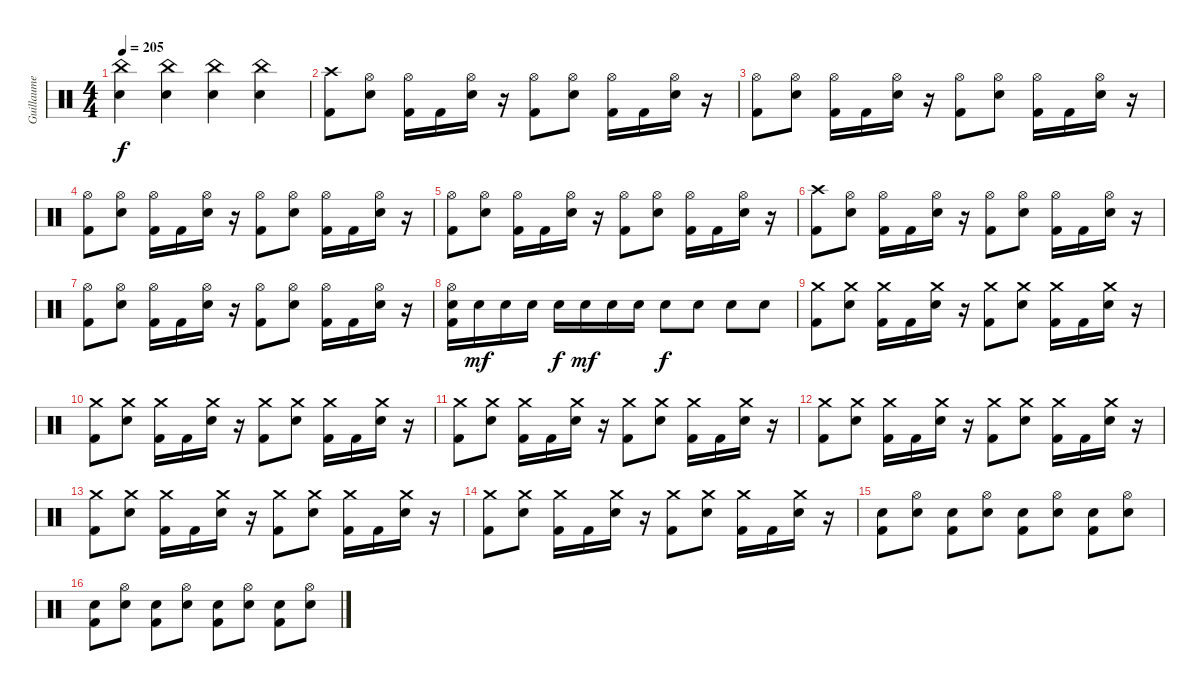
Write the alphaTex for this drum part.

\track ("Guillaume" "Guillaume") {instrument percussion}
\staff {score}
\articulation defaults
\ts (4 4)
\tempo 205
\clef neutral
\ks c
("China (hit)" "Snare (hit) 2").4{dy f} ("China (hit)" "Snare (hit) 2").4 ("China (hit)" "Snare (hit) 2").4 ("China (hit)" "Snare (hit) 2").4 |
("Crash high (hit)" "Kick (hit) 2").8 ("Snare (hit) 2" "Hi-Hat (open)").8 ("Hi-Hat (open)" "Kick (hit) 2").16 "Kick (hit) 2".16 ("Hi-Hat (open)" "Snare (hit) 2").16 r.16 ("Hi-Hat (open)" "Kick (hit) 2").8 ("Hi-Hat (open)" "Snare (hit) 2").8 ("Hi-Hat (open)" "Kick (hit) 2").16 "Kick (hit) 2".16 ("Hi-Hat (open)" "Snare (hit) 2").16 r.16 |
("Hi-Hat (open)" "Kick (hit) 2").8 ("Snare (hit) 2" "Hi-Hat (open)").8 ("Hi-Hat (open)" "Kick (hit) 2").16 "Kick (hit) 2".16 ("Hi-Hat (open)" "Snare (hit) 2").16 r.16 ("Hi-Hat (open)" "Kick (hit) 2").8 ("Hi-Hat (open)" "Snare (hit) 2").8 ("Hi-Hat (open)" "Kick (hit) 2").16 "Kick (hit) 2".16 ("Hi-Hat (open)" "Snare (hit) 2").16 r.16 |
("Hi-Hat (open)" "Kick (hit) 2").8 ("Snare (hit) 2" "Hi-Hat (open)").8 ("Hi-Hat (open)" "Kick (hit) 2").16 "Kick (hit) 2".16 ("Hi-Hat (open)" "Snare (hit) 2").16 r.16 ("Hi-Hat (open)" "Kick (hit) 2").8 ("Hi-Hat (open)" "Snare (hit) 2").8 ("Hi-Hat (open)" "Kick (hit) 2").16 "Kick (hit) 2".16 ("Hi-Hat (open)" "Snare (hit) 2").16 r.16 |
("Hi-Hat (open)" "Kick (hit) 2").8 ("Snare (hit) 2" "Hi-Hat (open)").8 ("Hi-Hat (open)" "Kick (hit) 2").16 "Kick (hit) 2".16 ("Hi-Hat (open)" "Snare (hit) 2").16 r.16 ("Hi-Hat (open)" "Kick (hit) 2").8 ("Hi-Hat (open)" "Snare (hit) 2").8 ("Hi-Hat (open)" "Kick (hit) 2").16 "Kick (hit) 2".16 ("Hi-Hat (open)" "Snare (hit) 2").16 r.16 |
("Crash high (hit)" "Kick (hit) 2").8 ("Snare (hit) 2" "Hi-Hat (open)").8 ("Hi-Hat (open)" "Kick (hit) 2").16 "Kick (hit) 2".16 ("Hi-Hat (open)" "Snare (hit) 2").16 r.16 ("Hi-Hat (open)" "Kick (hit) 2").8 ("Hi-Hat (open)" "Snare (hit) 2").8 ("Hi-Hat (open)" "Kick (hit) 2").16 "Kick (hit) 2".16 ("Hi-Hat (open)" "Snare (hit) 2").16 r.16 |
("Hi-Hat (open)" "Kick (hit) 2").8 ("Snare (hit) 2" "Hi-Hat (open)").8 ("Hi-Hat (open)" "Kick (hit) 2").16 "Kick (hit) 2".16 ("Hi-Hat (open)" "Snare (hit) 2").16 r.16 ("Hi-Hat (open)" "Kick (hit) 2").8 ("Hi-Hat (open)" "Snare (hit) 2").8 ("Hi-Hat (open)" "Kick (hit) 2").16 "Kick (hit) 2".16 ("Hi-Hat (open)" "Snare (hit) 2").16 r.16 |
("Hi-Hat (open)" "Kick (hit) 2" "Snare (hit) 2").16 "Snare (hit) 2".16{dy mf} "Snare (hit) 2".16 "Snare (hit) 2".16 "Snare (hit) 2".16{dy f} "Snare (hit) 2".16{dy mf} "Snare (hit) 2".16 "Snare (hit) 2".16 "Snare (hit) 2".8{dy f} "Snare (hit) 2".8 "Snare (hit) 2".8 "Snare (hit) 2".8 |
("Crash medium (hit)" "Kick (hit) 2").8 ("Crash medium (hit)" "Snare (hit) 2").8 ("Crash medium (hit)" "Kick (hit) 2").16 "Kick (hit) 2".16 ("Crash medium (hit)" "Snare (hit) 2").16 r.16 ("Crash medium (hit)" "Kick (hit) 2").8 ("Crash medium (hit)" "Snare (hit) 2").8 ("Crash medium (hit)" "Kick (hit) 2").16 "Kick (hit) 2".16 ("Crash medium (hit)" "Snare (hit) 2").16 r.16 |
("Crash medium (hit)" "Kick (hit) 2").8 ("Crash medium (hit)" "Snare (hit) 2").8 ("Crash medium (hit)" "Kick (hit) 2").16 "Kick (hit) 2".16 ("Crash medium (hit)" "Snare (hit) 2").16 r.16 ("Crash medium (hit)" "Kick (hit) 2").8 ("Crash medium (hit)" "Snare (hit) 2").8 ("Crash medium (hit)" "Kick (hit) 2").16 "Kick (hit) 2".16 ("Crash medium (hit)" "Snare (hit) 2").16 r.16 |
("Crash medium (hit)" "Kick (hit) 2").8 ("Crash medium (hit)" "Snare (hit) 2").8 ("Crash medium (hit)" "Kick (hit) 2").16 "Kick (hit) 2".16 ("Crash medium (hit)" "Snare (hit) 2").16 r.16 ("Crash medium (hit)" "Kick (hit) 2").8 ("Crash medium (hit)" "Snare (hit) 2").8 ("Crash medium (hit)" "Kick (hit) 2").16 "Kick (hit) 2".16 ("Crash medium (hit)" "Snare (hit) 2").16 r.16 |
("Crash medium (hit)" "Kick (hit) 2").8 ("Crash medium (hit)" "Snare (hit) 2").8 ("Crash medium (hit)" "Kick (hit) 2").16 "Kick (hit) 2".16 ("Crash medium (hit)" "Snare (hit) 2").16 r.16 ("Crash medium (hit)" "Kick (hit) 2").8 ("Crash medium (hit)" "Snare (hit) 2").8 ("Crash medium (hit)" "Kick (hit) 2").16 "Kick (hit) 2".16 ("Crash medium (hit)" "Snare (hit) 2").16 r.16 |
("Crash medium (hit)" "Kick (hit) 2").8 ("Crash medium (hit)" "Snare (hit) 2").8 ("Crash medium (hit)" "Kick (hit) 2").16 "Kick (hit) 2".16 ("Crash medium (hit)" "Snare (hit) 2").16 r.16 ("Crash medium (hit)" "Kick (hit) 2").8 ("Crash medium (hit)" "Snare (hit) 2").8 ("Crash medium (hit)" "Kick (hit) 2").16 "Kick (hit) 2".16 ("Crash medium (hit)" "Snare (hit) 2").16 r.16 |
("Crash medium (hit)" "Kick (hit) 2").8 ("Crash medium (hit)" "Snare (hit) 2").8 ("Crash medium (hit)" "Kick (hit) 2").16 "Kick (hit) 2".16 ("Crash medium (hit)" "Snare (hit) 2").16 r.16 ("Crash medium (hit)" "Kick (hit) 2").8 ("Crash medium (hit)" "Snare (hit) 2").8 ("Crash medium (hit)" "Kick (hit) 2").16 "Kick (hit) 2".16 ("Crash medium (hit)" "Snare (hit) 2").16 r.16 |
("Kick (hit) 2" "Snare (hit) 2").8 ("Hi-Hat (open)" "Snare (hit) 2").8 ("Kick (hit) 2" "Snare (hit) 2").8 ("Hi-Hat (open)" "Snare (hit) 2").8 ("Kick (hit) 2" "Snare (hit) 2").8 ("Hi-Hat (open)" "Snare (hit) 2").8 ("Kick (hit) 2" "Snare (hit) 2").8 ("Hi-Hat (open)" "Snare (hit) 2").8 |
("Kick (hit) 2" "Snare (hit) 2").8 ("Hi-Hat (open)" "Snare (hit) 2").8 ("Kick (hit) 2" "Snare (hit) 2").8 ("Hi-Hat (open)" "Snare (hit) 2").8 ("Kick (hit) 2" "Snare (hit) 2").8 ("Hi-Hat (open)" "Snare (hit) 2").8 ("Kick (hit) 2" "Snare (hit) 2").8 ("Hi-Hat (open)" "Snare (hit) 2").8
